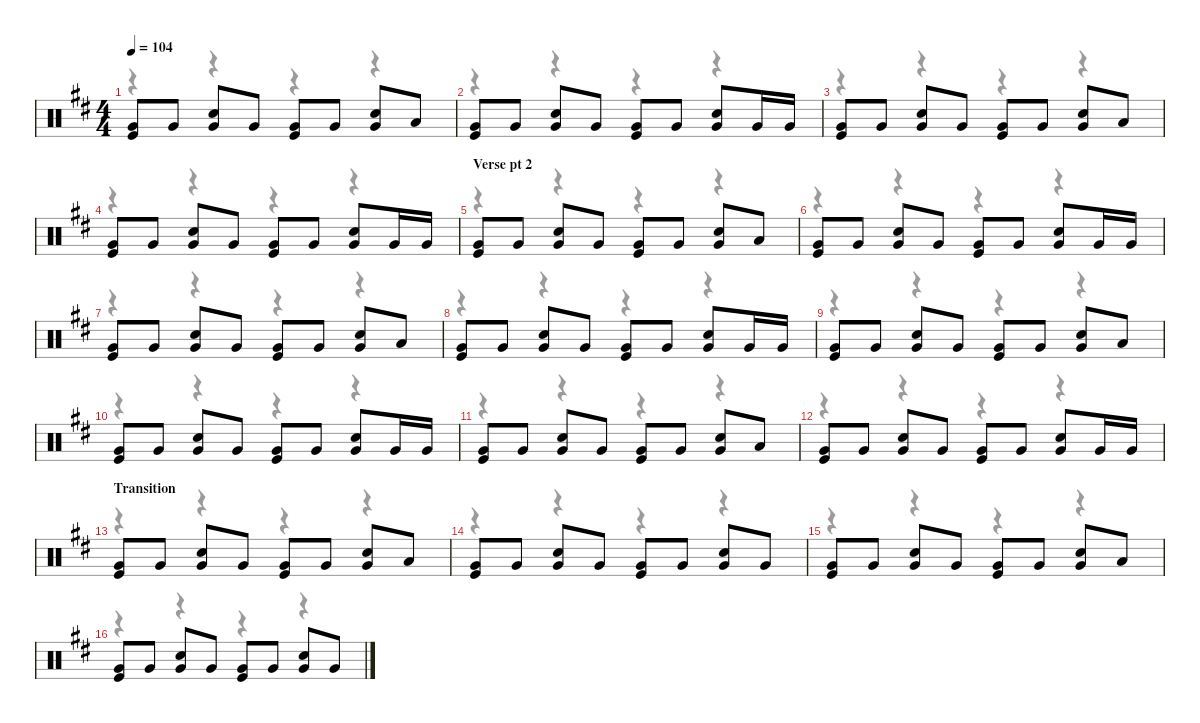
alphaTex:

\defaultSystemsLayout 4
\hideDynamics
\bracketExtendMode nobrackets
\singleTrackTrackNamePolicy hidden
\multiTrackTrackNamePolicy hidden
\firstSystemTrackNameMode fullname
\otherSystemsTrackNameOrientation horizontal
\track ("Drums" "drm.") {instrument percussion}
\staff {score}
\articulation defaults
\voice
\ts (4 4)
\tempo 104
\clef neutral
\ks bminor
("Very Low Tom (hit)"{acc forcenatural} "Kick (hit)"{acc forcenatural}).8{dy mp beam Up} "Very Low Tom (hit)"{acc forcenatural}.8{beam Up} ("Very Low Tom (hit)"{acc forcenatural} "Snare (hit) 2"{acc forcenatural}).8{beam Up} "Very Low Tom (hit)"{acc forcenatural}.8{beam Up} ("Very Low Tom (hit)"{acc forcenatural} "Kick (hit)"{acc forcenatural}).8{beam Up} "Very Low Tom (hit)"{acc forcenatural}.8{beam Up} ("Very Low Tom (hit)"{acc forcenatural} "Snare (hit) 2"{acc forcenatural}).8{beam Up} "Low Tom (hit)"{acc forcenatural}.8{beam Up} |
("Very Low Tom (hit)"{acc forcenatural} "Kick (hit)"{acc forcenatural}).8{beam Up} "Very Low Tom (hit)"{acc forcenatural}.8{beam Up} ("Very Low Tom (hit)"{acc forcenatural} "Snare (hit) 2"{acc forcenatural}).8{beam Up} "Very Low Tom (hit)"{acc forcenatural}.8{beam Up} ("Very Low Tom (hit)"{acc forcenatural} "Kick (hit)"{acc forcenatural}).8{beam Up} "Very Low Tom (hit)"{acc forcenatural}.8{beam Up} ("Very Low Tom (hit)"{acc forcenatural} "Snare (hit) 2"{acc forcenatural}).8{beam Up} "Very Low Tom (hit)"{acc forcenatural}.16{beam Up} "Very Low Tom (hit)"{acc forcenatural}.16{beam Up} |
("Very Low Tom (hit)"{acc forcenatural} "Kick (hit)"{acc forcenatural}).8{beam Up} "Very Low Tom (hit)"{acc forcenatural}.8{beam Up} ("Very Low Tom (hit)"{acc forcenatural} "Snare (hit) 2"{acc forcenatural}).8{beam Up} "Very Low Tom (hit)"{acc forcenatural}.8{beam Up} ("Very Low Tom (hit)"{acc forcenatural} "Kick (hit)"{acc forcenatural}).8{beam Up} "Very Low Tom (hit)"{acc forcenatural}.8{beam Up} ("Very Low Tom (hit)"{acc forcenatural} "Snare (hit) 2"{acc forcenatural}).8{beam Up} "Low Tom (hit)"{acc forcenatural}.8{beam Up} |
("Very Low Tom (hit)"{acc forcenatural} "Kick (hit)"{acc forcenatural}).8{beam Up} "Very Low Tom (hit)"{acc forcenatural}.8{beam Up} ("Very Low Tom (hit)"{acc forcenatural} "Snare (hit) 2"{acc forcenatural}).8{beam Up} "Very Low Tom (hit)"{acc forcenatural}.8{beam Up} ("Very Low Tom (hit)"{acc forcenatural} "Kick (hit)"{acc forcenatural}).8{beam Up} "Very Low Tom (hit)"{acc forcenatural}.8{beam Up} ("Very Low Tom (hit)"{acc forcenatural} "Snare (hit) 2"{acc forcenatural}).8{beam Up} "Very Low Tom (hit)"{acc forcenatural}.16{beam Up} "Very Low Tom (hit)"{acc forcenatural}.16{beam Up} |
\section ("" "Verse pt 2")
("Very Low Tom (hit)"{acc forcenatural} "Kick (hit)"{acc forcenatural}).8{beam Up} "Very Low Tom (hit)"{acc forcenatural}.8{beam Up} ("Very Low Tom (hit)"{acc forcenatural} "Snare (hit) 2"{acc forcenatural}).8{beam Up} "Very Low Tom (hit)"{acc forcenatural}.8{beam Up} ("Very Low Tom (hit)"{acc forcenatural} "Kick (hit)"{acc forcenatural}).8{beam Up} "Very Low Tom (hit)"{acc forcenatural}.8{beam Up} ("Very Low Tom (hit)"{acc forcenatural} "Snare (hit) 2"{acc forcenatural}).8{beam Up} "Low Tom (hit)"{acc forcenatural}.8{beam Up} |
("Very Low Tom (hit)"{acc forcenatural} "Kick (hit)"{acc forcenatural}).8{beam Up} "Very Low Tom (hit)"{acc forcenatural}.8{beam Up} ("Very Low Tom (hit)"{acc forcenatural} "Snare (hit) 2"{acc forcenatural}).8{beam Up} "Very Low Tom (hit)"{acc forcenatural}.8{beam Up} ("Very Low Tom (hit)"{acc forcenatural} "Kick (hit)"{acc forcenatural}).8{beam Up} "Very Low Tom (hit)"{acc forcenatural}.8{beam Up} ("Very Low Tom (hit)"{acc forcenatural} "Snare (hit) 2"{acc forcenatural}).8{beam Up} "Very Low Tom (hit)"{acc forcenatural}.16{beam Up} "Very Low Tom (hit)"{acc forcenatural}.16{beam Up} |
("Very Low Tom (hit)"{acc forcenatural} "Kick (hit)"{acc forcenatural}).8{beam Up} "Very Low Tom (hit)"{acc forcenatural}.8{beam Up} ("Very Low Tom (hit)"{acc forcenatural} "Snare (hit) 2"{acc forcenatural}).8{beam Up} "Very Low Tom (hit)"{acc forcenatural}.8{beam Up} ("Very Low Tom (hit)"{acc forcenatural} "Kick (hit)"{acc forcenatural}).8{beam Up} "Very Low Tom (hit)"{acc forcenatural}.8{beam Up} ("Very Low Tom (hit)"{acc forcenatural} "Snare (hit) 2"{acc forcenatural}).8{beam Up} "Low Tom (hit)"{acc forcenatural}.8{beam Up} |
("Very Low Tom (hit)"{acc forcenatural} "Kick (hit)"{acc forcenatural}).8{beam Up} "Very Low Tom (hit)"{acc forcenatural}.8{beam Up} ("Very Low Tom (hit)"{acc forcenatural} "Snare (hit) 2"{acc forcenatural}).8{beam Up} "Very Low Tom (hit)"{acc forcenatural}.8{beam Up} ("Very Low Tom (hit)"{acc forcenatural} "Kick (hit)"{acc forcenatural}).8{beam Up} "Very Low Tom (hit)"{acc forcenatural}.8{beam Up} ("Very Low Tom (hit)"{acc forcenatural} "Snare (hit) 2"{acc forcenatural}).8{beam Up} "Very Low Tom (hit)"{acc forcenatural}.16{beam Up} "Very Low Tom (hit)"{acc forcenatural}.16{beam Up} |
("Very Low Tom (hit)"{acc forcenatural} "Kick (hit)"{acc forcenatural}).8{beam Up} "Very Low Tom (hit)"{acc forcenatural}.8{beam Up} ("Very Low Tom (hit)"{acc forcenatural} "Snare (hit) 2"{acc forcenatural}).8{beam Up} "Very Low Tom (hit)"{acc forcenatural}.8{beam Up} ("Very Low Tom (hit)"{acc forcenatural} "Kick (hit)"{acc forcenatural}).8{beam Up} "Very Low Tom (hit)"{acc forcenatural}.8{beam Up} ("Very Low Tom (hit)"{acc forcenatural} "Snare (hit) 2"{acc forcenatural}).8{beam Up} "Low Tom (hit)"{acc forcenatural}.8{beam Up} |
("Very Low Tom (hit)"{acc forcenatural} "Kick (hit)"{acc forcenatural}).8{beam Up} "Very Low Tom (hit)"{acc forcenatural}.8{beam Up} ("Very Low Tom (hit)"{acc forcenatural} "Snare (hit) 2"{acc forcenatural}).8{beam Up} "Very Low Tom (hit)"{acc forcenatural}.8{beam Up} ("Very Low Tom (hit)"{acc forcenatural} "Kick (hit)"{acc forcenatural}).8{beam Up} "Very Low Tom (hit)"{acc forcenatural}.8{beam Up} ("Very Low Tom (hit)"{acc forcenatural} "Snare (hit) 2"{acc forcenatural}).8{beam Up} "Very Low Tom (hit)"{acc forcenatural}.16{beam Up} "Very Low Tom (hit)"{acc forcenatural}.16{beam Up} |
("Very Low Tom (hit)"{acc forcenatural} "Kick (hit)"{acc forcenatural}).8{beam Up} "Very Low Tom (hit)"{acc forcenatural}.8{beam Up} ("Very Low Tom (hit)"{acc forcenatural} "Snare (hit) 2"{acc forcenatural}).8{beam Up} "Very Low Tom (hit)"{acc forcenatural}.8{beam Up} ("Very Low Tom (hit)"{acc forcenatural} "Kick (hit)"{acc forcenatural}).8{beam Up} "Very Low Tom (hit)"{acc forcenatural}.8{beam Up} ("Very Low Tom (hit)"{acc forcenatural} "Snare (hit) 2"{acc forcenatural}).8{beam Up} "Low Tom (hit)"{acc forcenatural}.8{beam Up} |
("Very Low Tom (hit)"{acc forcenatural} "Kick (hit)"{acc forcenatural}).8{beam Up} "Very Low Tom (hit)"{acc forcenatural}.8{beam Up} ("Very Low Tom (hit)"{acc forcenatural} "Snare (hit) 2"{acc forcenatural}).8{beam Up} "Very Low Tom (hit)"{acc forcenatural}.8{beam Up} ("Very Low Tom (hit)"{acc forcenatural} "Kick (hit)"{acc forcenatural}).8{beam Up} "Very Low Tom (hit)"{acc forcenatural}.8{beam Up} ("Very Low Tom (hit)"{acc forcenatural} "Snare (hit) 2"{acc forcenatural}).8{beam Up} "Very Low Tom (hit)"{acc forcenatural}.16{beam Up} "Very Low Tom (hit)"{acc forcenatural}.16{beam Up} |
\section ("" "Transition")
("Very Low Tom (hit)"{acc forcenatural} "Kick (hit)"{acc forcenatural}).8{beam Up} "Very Low Tom (hit)"{acc forcenatural}.8{beam Up} ("Very Low Tom (hit)"{acc forcenatural} "Snare (hit) 2"{acc forcenatural}).8{beam Up} "Very Low Tom (hit)"{acc forcenatural}.8{beam Up} ("Very Low Tom (hit)"{acc forcenatural} "Kick (hit)"{acc forcenatural}).8{beam Up} "Very Low Tom (hit)"{acc forcenatural}.8{beam Up} ("Very Low Tom (hit)"{acc forcenatural} "Snare (hit) 2"{acc forcenatural}).8{beam Up} "Low Tom (hit)"{acc forcenatural}.8{beam Up} |
("Very Low Tom (hit)"{acc forcenatural} "Kick (hit)"{acc forcenatural}).8{beam Up} "Very Low Tom (hit)"{acc forcenatural}.8{beam Up} ("Very Low Tom (hit)"{acc forcenatural} "Snare (hit) 2"{acc forcenatural}).8{beam Up} "Very Low Tom (hit)"{acc forcenatural}.8{beam Up} ("Very Low Tom (hit)"{acc forcenatural} "Kick (hit)"{acc forcenatural}).8{beam Up} "Very Low Tom (hit)"{acc forcenatural}.8{beam Up} ("Very Low Tom (hit)"{acc forcenatural} "Snare (hit) 2"{acc forcenatural}).8{beam Up} "Very Low Tom (hit)"{acc forcenatural}.8{beam Up} |
("Very Low Tom (hit)"{acc forcenatural} "Kick (hit)"{acc forcenatural}).8{beam Up} "Very Low Tom (hit)"{acc forcenatural}.8{beam Up} ("Very Low Tom (hit)"{acc forcenatural} "Snare (hit) 2"{acc forcenatural}).8{beam Up} "Very Low Tom (hit)"{acc forcenatural}.8{beam Up} ("Very Low Tom (hit)"{acc forcenatural} "Kick (hit)"{acc forcenatural}).8{beam Up} "Very Low Tom (hit)"{acc forcenatural}.8{beam Up} ("Very Low Tom (hit)"{acc forcenatural} "Snare (hit) 2"{acc forcenatural}).8{beam Up} "Low Tom (hit)"{acc forcenatural}.8{beam Up} |
("Very Low Tom (hit)"{acc forcenatural} "Kick (hit)"{acc forcenatural}).8{beam Up} "Very Low Tom (hit)"{acc forcenatural}.8{beam Up} ("Very Low Tom (hit)"{acc forcenatural} "Snare (hit) 2"{acc forcenatural}).8{beam Up} "Very Low Tom (hit)"{acc forcenatural}.8{beam Up} ("Very Low Tom (hit)"{acc forcenatural} "Kick (hit)"{acc forcenatural}).8{beam Up} "Very Low Tom (hit)"{acc forcenatural}.8{beam Up} ("Very Low Tom (hit)"{acc forcenatural} "Snare (hit) 2"{acc forcenatural}).8{beam Up} "Very Low Tom (hit)"{acc forcenatural}.8{beam Up}
\voice
\clef neutral
\ottava regular
\simile none
\ks bminor
r.4{dy mf beam Down} r.4{beam Down} r.4{beam Down} r.4{beam Down} |
r.4{beam Down} r.4{beam Down} r.4{beam Down} r.4{beam Down} |
r.4{beam Down} r.4{beam Down} r.4{beam Down} r.4{beam Down} |
r.4{beam Down} r.4{beam Down} r.4{beam Down} r.4{beam Down} |
r.4{beam Down} r.4{beam Down} r.4{beam Down} r.4{beam Down} |
r.4{beam Down} r.4{beam Down} r.4{beam Down} r.4{beam Down} |
r.4{beam Down} r.4{beam Down} r.4{beam Down} r.4{beam Down} |
r.4{beam Down} r.4{beam Down} r.4{beam Down} r.4{beam Down} |
r.4{beam Down} r.4{beam Down} r.4{beam Down} r.4{beam Down} |
r.4{beam Down} r.4{beam Down} r.4{beam Down} r.4{beam Down} |
r.4{beam Down} r.4{beam Down} r.4{beam Down} r.4{beam Down} |
r.4{beam Down} r.4{beam Down} r.4{beam Down} r.4{beam Down} |
r.4{beam Down} r.4{beam Down} r.4{beam Down} r.4{beam Down} |
r.4{beam Down} r.4{beam Down} r.4{beam Down} r.4{beam Down} |
r.4{beam Down} r.4{beam Down} r.4{beam Down} r.4{beam Down} |
r.4{beam Down} r.4{beam Down} r.4{beam Down} r.4{beam Down}
